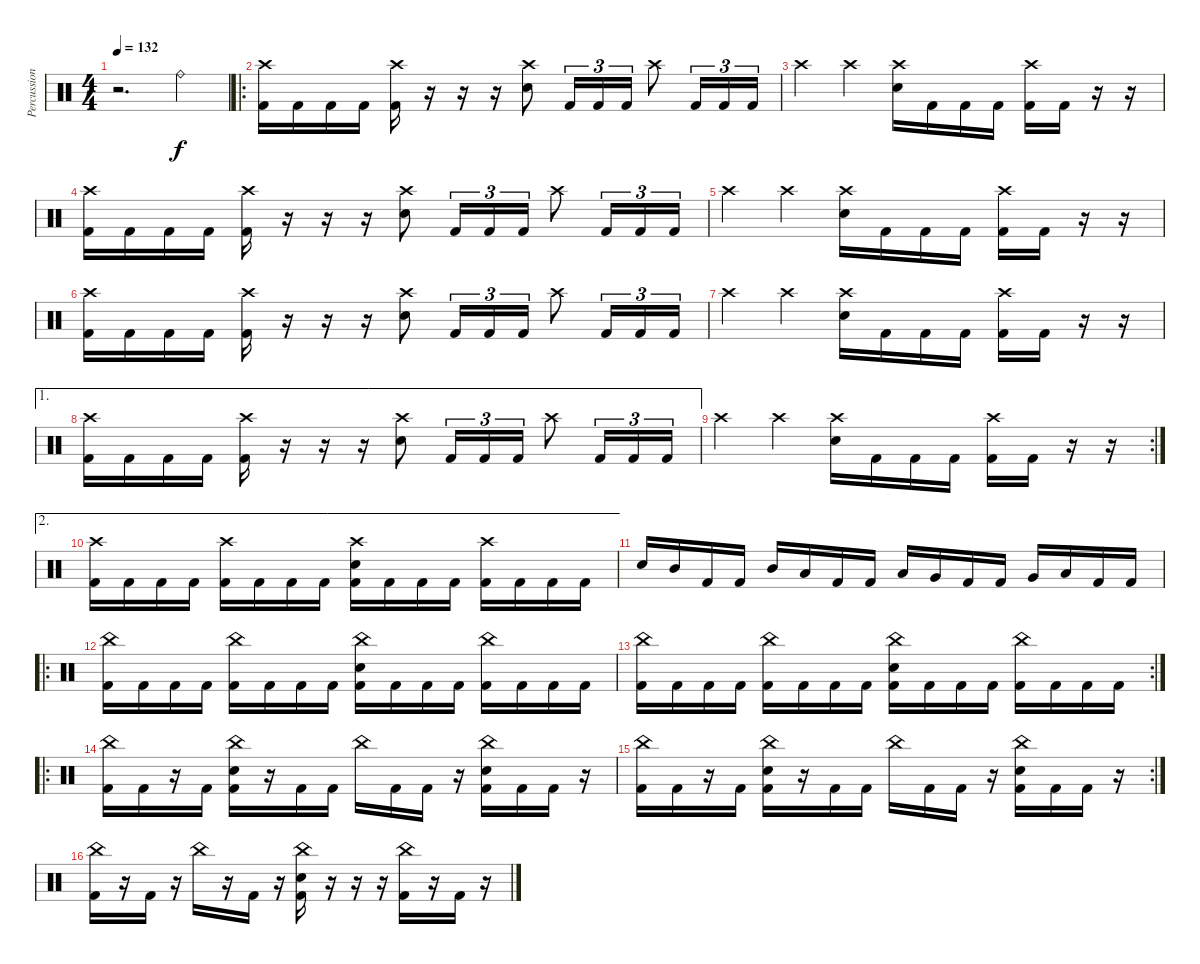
\track ("Percussion" "Percussion") {instrument percussion}
\staff {score}
\articulation defaults
\ts (4 4)
\tempo 132
\clef neutral
\ks c
r.2{d dy f} "Ride (bell)".4 |
\ro
("Crash high (hit)" "Kick (hit) 2").16 "Kick (hit) 2".16 "Kick (hit) 2".16 "Kick (hit) 2".16 ("Crash high (hit)" "Kick (hit) 2").16 r.16 r.16 r.16 ("Crash high (hit)" "Electric Snare (hit)").8 "Kick (hit) 2".16{tu (3 2)} "Kick (hit) 2".16{tu (3 2)} "Kick (hit) 2".16{tu (3 2)} "Crash high (hit)".8 "Kick (hit) 2".16{tu (3 2)} "Kick (hit) 2".16{tu (3 2)} "Kick (hit) 2".16{tu (3 2)} |
"Crash high (hit)".4 "Crash high (hit)".4 ("Crash high (hit)" "Electric Snare (hit)").16 "Kick (hit) 2".16 "Kick (hit) 2".16 "Kick (hit) 2".16 ("Crash high (hit)" "Kick (hit) 2").16 "Kick (hit) 2".16 r.16 r.16 |
("Crash high (hit)" "Kick (hit) 2").16 "Kick (hit) 2".16 "Kick (hit) 2".16 "Kick (hit) 2".16 ("Crash high (hit)" "Kick (hit) 2").16 r.16 r.16 r.16 ("Crash high (hit)" "Electric Snare (hit)").8 "Kick (hit) 2".16{tu (3 2)} "Kick (hit) 2".16{tu (3 2)} "Kick (hit) 2".16{tu (3 2)} "Crash high (hit)".8 "Kick (hit) 2".16{tu (3 2)} "Kick (hit) 2".16{tu (3 2)} "Kick (hit) 2".16{tu (3 2)} |
"Crash high (hit)".4 "Crash high (hit)".4 ("Crash high (hit)" "Electric Snare (hit)").16 "Kick (hit) 2".16 "Kick (hit) 2".16 "Kick (hit) 2".16 ("Crash high (hit)" "Kick (hit) 2").16 "Kick (hit) 2".16 r.16 r.16 |
("Crash high (hit)" "Kick (hit) 2").16 "Kick (hit) 2".16 "Kick (hit) 2".16 "Kick (hit) 2".16 ("Crash high (hit)" "Kick (hit) 2").16 r.16 r.16 r.16 ("Crash high (hit)" "Electric Snare (hit)").8 "Kick (hit) 2".16{tu (3 2)} "Kick (hit) 2".16{tu (3 2)} "Kick (hit) 2".16{tu (3 2)} "Crash high (hit)".8 "Kick (hit) 2".16{tu (3 2)} "Kick (hit) 2".16{tu (3 2)} "Kick (hit) 2".16{tu (3 2)} |
"Crash high (hit)".4 "Crash high (hit)".4 ("Crash high (hit)" "Electric Snare (hit)").16 "Kick (hit) 2".16 "Kick (hit) 2".16 "Kick (hit) 2".16 ("Crash high (hit)" "Kick (hit) 2").16 "Kick (hit) 2".16 r.16 r.16 |
\ae 1
("Crash high (hit)" "Kick (hit) 2").16 "Kick (hit) 2".16 "Kick (hit) 2".16 "Kick (hit) 2".16 ("Crash high (hit)" "Kick (hit) 2").16 r.16 r.16 r.16 ("Crash high (hit)" "Electric Snare (hit)").8 "Kick (hit) 2".16{tu (3 2)} "Kick (hit) 2".16{tu (3 2)} "Kick (hit) 2".16{tu (3 2)} "Crash high (hit)".8 "Kick (hit) 2".16{tu (3 2)} "Kick (hit) 2".16{tu (3 2)} "Kick (hit) 2".16{tu (3 2)} |
\rc 2 "Crash high (hit)".4 "Crash high (hit)".4
("Crash high (hit)" "Electric Snare (hit)").16 "Kick (hit) 2".16 "Kick (hit) 2".16 "Kick (hit) 2".16 ("Crash high (hit)" "Kick (hit) 2").16 "Kick (hit) 2".16 r.16 r.16 |
\ae 2
("Crash high (hit)" "Kick (hit) 2").16 "Kick (hit) 2".16 "Kick (hit) 2".16 "Kick (hit) 2".16 ("Crash high (hit)" "Kick (hit) 2").16 "Kick (hit) 2".16 "Kick (hit) 2".16 "Kick (hit) 2".16 ("Crash high (hit)" "Electric Snare (hit)" "Kick (hit) 2").16 "Kick (hit) 2".16 "Kick (hit) 2".16 "Kick (hit) 2".16 ("Crash high (hit)" "Kick (hit) 2").16 "Kick (hit) 2".16 "Kick (hit) 2".16 "Kick (hit) 2".16 |
"Electric Snare (hit)".16 "Mid Tom (hit)".16 "Kick (hit) 2".16 "Kick (hit) 2".16 "Mid Tom (hit)".16 "Low Tom (hit)".16 "Kick (hit) 2".16 "Kick (hit) 2".16 "Low Tom (hit)".16 "Very Low Tom (hit)".16 "Kick (hit) 2".16 "Kick (hit) 2".16 "Very Low Tom (hit)".16 "Low Floor Tom (hit)".16 "Kick (hit) 2".16 "Kick (hit) 2".16 |
\ro
("China (hit)" "Kick (hit) 2").16 "Kick (hit) 2".16 "Kick (hit) 2".16 "Kick (hit) 2".16 ("China (hit)" "Kick (hit) 2").16 "Kick (hit) 2".16 "Kick (hit) 2".16 "Kick (hit) 2".16 ("China (hit)" "Electric Snare (hit)" "Kick (hit) 2").16 "Kick (hit) 2".16 "Kick (hit) 2".16 "Kick (hit) 2".16 ("China (hit)" "Kick (hit) 2").16 "Kick (hit) 2".16 "Kick (hit) 2".16 "Kick (hit) 2".16 |
\rc 2
("China (hit)" "Kick (hit) 2").16 "Kick (hit) 2".16 "Kick (hit) 2".16 "Kick (hit) 2".16 ("China (hit)" "Kick (hit) 2").16 "Kick (hit) 2".16 "Kick (hit) 2".16 "Kick (hit) 2".16 ("China (hit)" "Electric Snare (hit)" "Kick (hit) 2").16 "Kick (hit) 2".16 "Kick (hit) 2".16 "Kick (hit) 2".16 ("China (hit)" "Kick (hit) 2").16 "Kick (hit) 2".16 "Kick (hit) 2".16 "Kick (hit) 2".16 |
\ro
("China (hit)" "Kick (hit) 2").16 "Kick (hit) 2".16 r.16 "Kick (hit) 2".16 ("China (hit)" "Electric Snare (hit)" "Kick (hit) 2").16 r.16 "Kick (hit) 2".16 "Kick (hit) 2".16 "China (hit)".16 "Kick (hit) 2".16 "Kick (hit) 2".16 r.16 ("China (hit)" "Electric Snare (hit)" "Kick (hit) 2").16 "Kick (hit) 2".16 "Kick (hit) 2".16 r.16 |
\rc 2
("China (hit)" "Kick (hit) 2").16 "Kick (hit) 2".16 r.16 "Kick (hit) 2".16 ("China (hit)" "Electric Snare (hit)" "Kick (hit) 2").16 r.16 "Kick (hit) 2".16 "Kick (hit) 2".16 "China (hit)".16 "Kick (hit) 2".16 "Kick (hit) 2".16 r.16 ("China (hit)" "Electric Snare (hit)" "Kick (hit) 2").16 "Kick (hit) 2".16 "Kick (hit) 2".16 r.16 |
("China (hit)" "Kick (hit) 2").16 r.16 "Kick (hit) 2".16 r.16 "China (hit)".16 r.16 "Kick (hit) 2".16 r.16 ("China (hit)" "Kick (hit) 2" "Electric Snare (hit)").16 r.16 r.16 r.16 ("China (hit)" "Kick (hit) 2").16 r.16 "Kick (hit) 2".16 r.16
